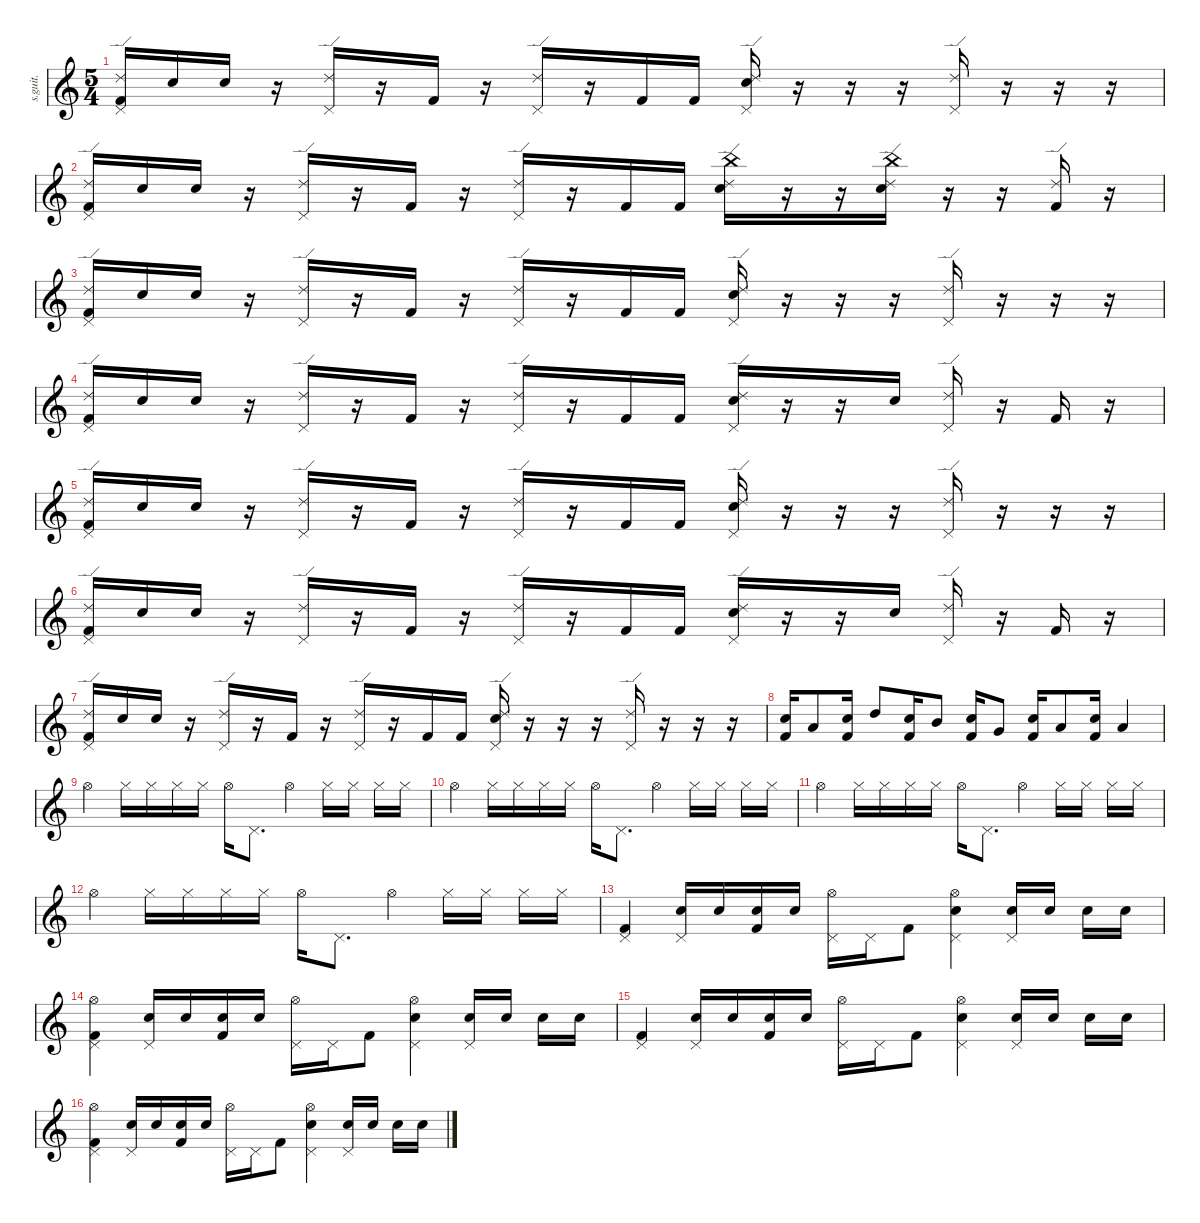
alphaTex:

\defaultSystemsLayout 4
\hideDynamics
\bracketExtendMode nobrackets
\track ("Pete Riley" "s.guit.") {instrument percussion}
\staff {score}
\articulation defaults
\ts (5 4)
\beaming (8 2 2 2 2)
\tempo (152 hide)
\clef g2
\ks c
("Pedal Hi-Hat (hit)" "Ride (edge) 2" "Kick (hit) 2").16{dy f} "Snare (hit) 2".16{dy p} "Snare (hit) 2".16{dy pp} r.16 ("Pedal Hi-Hat (hit)" "Ride (edge) 2").16{dy f} r.16 "Kick (hit) 2".16 r.16 ("Pedal Hi-Hat (hit)" "Ride (edge) 2").16 r.16 "Kick (hit) 2".16 "Kick (hit) 2".16{dy mp} ("Pedal Hi-Hat (hit)" "Ride (edge) 2" "Snare (hit) 2").16{dy f} r.16 r.16 r.16 ("Pedal Hi-Hat (hit)" "Ride (edge) 2").16 r.16 r.16 r.16 |
("Pedal Hi-Hat (hit)" "Ride (edge) 2" "Kick (hit) 2").16 "Snare (hit) 2".16{dy p} "Snare (hit) 2".16{dy pp} r.16 ("Pedal Hi-Hat (hit)" "Ride (edge) 2").16{dy f} r.16 "Kick (hit) 2".16 r.16 ("Pedal Hi-Hat (hit)" "Ride (edge) 2").16 r.16 "Kick (hit) 2".16 "Kick (hit) 2".16{dy mp} ("China (hit)" "Ride (edge) 2" "Snare (hit) 2").16{dy f} r.16 r.16 ("China (hit)" "Ride (edge) 2" "Snare (hit) 2").16 r.16 r.16 ("Ride (edge) 2" "Kick (hit) 2").16 r.16 |
("Pedal Hi-Hat (hit)" "Ride (edge) 2" "Kick (hit) 2").16 "Snare (hit) 2".16{dy p} "Snare (hit) 2".16{dy pp} r.16 ("Pedal Hi-Hat (hit)" "Ride (edge) 2").16{dy f} r.16 "Kick (hit) 2".16 r.16 ("Pedal Hi-Hat (hit)" "Ride (edge) 2").16 r.16 "Kick (hit) 2".16 "Kick (hit) 2".16{dy mp} ("Pedal Hi-Hat (hit)" "Ride (edge) 2" "Snare (hit) 2").16{dy f} r.16 r.16 r.16 ("Pedal Hi-Hat (hit)" "Ride (edge) 2").16 r.16 r.16 r.16 |
("Pedal Hi-Hat (hit)" "Ride (edge) 2" "Kick (hit) 2").16 "Snare (hit) 2".16{dy p} "Snare (hit) 2".16{dy pp} r.16 ("Pedal Hi-Hat (hit)" "Ride (edge) 2").16{dy f} r.16 "Kick (hit) 2".16 r.16 ("Pedal Hi-Hat (hit)" "Ride (edge) 2").16 r.16 "Kick (hit) 2".16 "Kick (hit) 2".16{dy mp} ("Pedal Hi-Hat (hit)" "Ride (edge) 2" "Snare (hit) 2").16{dy f} r.16 r.16 "Snare (hit) 2".16 ("Pedal Hi-Hat (hit)" "Ride (edge) 2").16 r.16 "Kick (hit) 2".16 r.16 |
("Pedal Hi-Hat (hit)" "Ride (edge) 2" "Kick (hit) 2").16 "Snare (hit) 2".16{dy p} "Snare (hit) 2".16{dy pp} r.16 ("Pedal Hi-Hat (hit)" "Ride (edge) 2").16{dy f} r.16 "Kick (hit) 2".16 r.16 ("Pedal Hi-Hat (hit)" "Ride (edge) 2").16 r.16 "Kick (hit) 2".16 "Kick (hit) 2".16{dy mp} ("Pedal Hi-Hat (hit)" "Ride (edge) 2" "Snare (hit) 2").16{dy f} r.16 r.16 r.16 ("Pedal Hi-Hat (hit)" "Ride (edge) 2").16 r.16 r.16 r.16 |
("Pedal Hi-Hat (hit)" "Ride (edge) 2" "Kick (hit) 2").16 "Snare (hit) 2".16{dy p} "Snare (hit) 2".16{dy pp} r.16 ("Pedal Hi-Hat (hit)" "Ride (edge) 2").16{dy f} r.16 "Kick (hit) 2".16 r.16 ("Pedal Hi-Hat (hit)" "Ride (edge) 2").16 r.16 "Kick (hit) 2".16 "Kick (hit) 2".16{dy mp} ("Pedal Hi-Hat (hit)" "Ride (edge) 2" "Snare (hit) 2").16{dy f} r.16 r.16 "Snare (hit) 2".16 ("Pedal Hi-Hat (hit)" "Ride (edge) 2").16 r.16 "Kick (hit) 2".16 r.16 |
("Pedal Hi-Hat (hit)" "Ride (edge) 2" "Kick (hit) 2").16 "Snare (hit) 2".16{dy p} "Snare (hit) 2".16{dy pp} r.16 ("Pedal Hi-Hat (hit)" "Ride (edge) 2").16{dy f} r.16 "Kick (hit) 2".16 r.16 ("Pedal Hi-Hat (hit)" "Ride (edge) 2").16 r.16 "Kick (hit) 2".16 "Kick (hit) 2".16{dy mp} ("Pedal Hi-Hat (hit)" "Ride (edge) 2" "Snare (hit) 2").16{dy f} r.16 r.16 r.16 ("Pedal Hi-Hat (hit)" "Ride (edge) 2").16 r.16 r.16 r.16 |
("Snare (hit) 2" "Kick (hit) 2").16{dy p} "Low Tom (hit)".8{dy f} ("Snare (hit) 2" "Kick (hit) 2").16{dy mp} "High Tom (hit)".8{dy f} ("Snare (hit) 2" "Kick (hit) 2").16{dy mf} "Mid Tom (hit)".8{dy f} ("Snare (hit) 2" "Kick (hit) 2").16 "Very Low Tom (hit)".8 ("Snare (hit) 2" "Kick (hit) 2").16{dy mf} "Low Tom (hit)".8{dy f} ("Snare (hit) 2" "Kick (hit) 2").16{dy mp} "Low Floor Tom (hit)".4{dy f} |
"Hi-Hat (open)".4{dy ff} "Hi-Hat (closed)".16{dy mp} "Hi-Hat (closed)".16{dy mf} "Hi-Hat (closed)".16{dy mp} "Hi-Hat (closed)".16{dy mf} "Hi-Hat (open)".16{dy ff} "Pedal Hi-Hat (hit)".8{d dy pp} "Hi-Hat (open)".4{dy ff} "Hi-Hat (closed)".16{dy mp} "Hi-Hat (closed)".16{dy mf} "Hi-Hat (closed)".16{dy mp} "Hi-Hat (closed)".16{dy mf} |
"Hi-Hat (open)".4{dy ff} "Hi-Hat (closed)".16{dy mp} "Hi-Hat (closed)".16{dy mf} "Hi-Hat (closed)".16{dy mp} "Hi-Hat (closed)".16{dy mf} "Hi-Hat (open)".16{dy ff} "Pedal Hi-Hat (hit)".8{d dy pp} "Hi-Hat (open)".4{dy ff} "Hi-Hat (closed)".16{dy mp} "Hi-Hat (closed)".16{dy mf} "Hi-Hat (closed)".16{dy mp} "Hi-Hat (closed)".16{dy mf} |
"Hi-Hat (open)".4{dy ff} "Hi-Hat (closed)".16{dy mp} "Hi-Hat (closed)".16{dy mf} "Hi-Hat (closed)".16{dy mp} "Hi-Hat (closed)".16{dy mf} "Hi-Hat (open)".16{dy ff} "Pedal Hi-Hat (hit)".8{d dy pp} "Hi-Hat (open)".4{dy ff} "Hi-Hat (closed)".16{dy mp} "Hi-Hat (closed)".16{dy mf} "Hi-Hat (closed)".16{dy mp} "Hi-Hat (closed)".16{dy mf} |
"Hi-Hat (open)".4{dy ff} "Hi-Hat (closed)".16{dy mp} "Hi-Hat (closed)".16{dy mf} "Hi-Hat (closed)".16{dy mp} "Hi-Hat (closed)".16{dy mf} "Hi-Hat (open)".16{dy ff} "Pedal Hi-Hat (hit)".8{d dy pp} "Hi-Hat (open)".4{dy ff} "Hi-Hat (closed)".16{dy mp} "Hi-Hat (closed)".16{dy mf} "Hi-Hat (closed)".16{dy mp} "Hi-Hat (closed)".16{dy mf} |
("Pedal Hi-Hat (hit)" "Kick (hit) 2").4{dy f} ("Pedal Hi-Hat (hit)" "Snare (hit) 2").16 "Snare (hit) 2".16{dy p} ("Snare (hit) 2" "Kick (hit) 2").16{dy pp} "Snare (hit) 2".16{dy p} ("Pedal Hi-Hat (hit)" "Hi-Hat (open)").16{dy f} "Pedal Hi-Hat (hit)".16{dy pp} "Kick (hit) 2".8{dy f} ("Pedal Hi-Hat (hit)" "Hi-Hat (open)" "Snare (hit) 2").4 ("Pedal Hi-Hat (hit)" "Snare (hit) 2").16 "Snare (hit) 2".16{dy p} "Snare (hit) 2".16{dy pp} "Snare (hit) 2".16{dy p} |
("Pedal Hi-Hat (hit)" "Hi-Hat (open)" "Kick (hit) 2").4{dy f} ("Pedal Hi-Hat (hit)" "Snare (hit) 2").16 "Snare (hit) 2".16{dy p} ("Snare (hit) 2" "Kick (hit) 2").16{dy pp} "Snare (hit) 2".16{dy p} ("Pedal Hi-Hat (hit)" "Hi-Hat (open)").16{dy f} "Pedal Hi-Hat (hit)".16{dy pp} "Kick (hit) 2".8{dy f} ("Pedal Hi-Hat (hit)" "Hi-Hat (open)" "Snare (hit) 2").4 ("Pedal Hi-Hat (hit)" "Snare (hit) 2").16 "Snare (hit) 2".16{dy p} "Snare (hit) 2".16{dy pp} "Snare (hit) 2".16{dy p} |
("Pedal Hi-Hat (hit)" "Kick (hit) 2").4{dy f} ("Pedal Hi-Hat (hit)" "Snare (hit) 2").16 "Snare (hit) 2".16{dy p} ("Snare (hit) 2" "Kick (hit) 2").16{dy pp} "Snare (hit) 2".16{dy p} ("Pedal Hi-Hat (hit)" "Hi-Hat (open)").16{dy f} "Pedal Hi-Hat (hit)".16{dy pp} "Kick (hit) 2".8{dy f} ("Pedal Hi-Hat (hit)" "Hi-Hat (open)" "Snare (hit) 2").4 ("Pedal Hi-Hat (hit)" "Snare (hit) 2").16 "Snare (hit) 2".16{dy p} "Snare (hit) 2".16{dy pp} "Snare (hit) 2".16{dy p} |
("Pedal Hi-Hat (hit)" "Hi-Hat (open)" "Kick (hit) 2").4{dy f} ("Pedal Hi-Hat (hit)" "Snare (hit) 2").16 "Snare (hit) 2".16{dy p} ("Snare (hit) 2" "Kick (hit) 2").16{dy pp} "Snare (hit) 2".16{dy p} ("Pedal Hi-Hat (hit)" "Hi-Hat (open)").16{dy f} "Pedal Hi-Hat (hit)".16{dy pp} "Kick (hit) 2".8{dy f} ("Pedal Hi-Hat (hit)" "Hi-Hat (open)" "Snare (hit) 2").4 ("Pedal Hi-Hat (hit)" "Snare (hit) 2").16 "Snare (hit) 2".16{dy p} "Snare (hit) 2".16{dy pp} "Snare (hit) 2".16{dy p}
